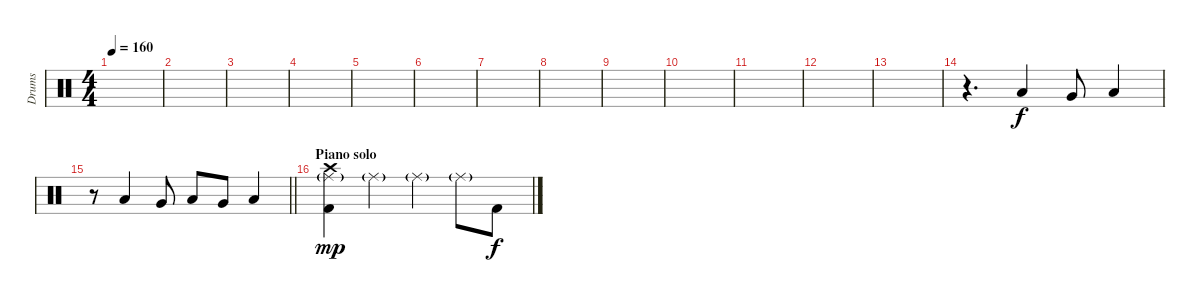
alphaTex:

\track ("Drums" "Drums") {instrument percussion}
\staff {score}
\articulation defaults
\ts (4 4)
\tempo 160
\clef neutral
\ks c
|
|
|
|
|
|
|
|
|
|
|
|
|
r.4{d} "Low Tom (hit)".4 "Very Low Tom (hit)".8 "Low Floor Tom (hit)".4 |
\barLineRight lightlight
r.8 "Low Tom (hit)".4 "Very Low Tom (hit)".8 "Low Tom (hit)".8 "Very Low Tom (hit)".8 "Low Floor Tom (hit)".4 |
\section ("" "Piano solo")
("Kick (hit) 2" "Ride (middle)"{g} "Crash high (hit)").4{dy mp} "Ride (middle)"{g}.4 "Ride (middle)"{g}.4 "Ride (middle)"{g}.8 "Kick (hit) 2".8{dy f}
